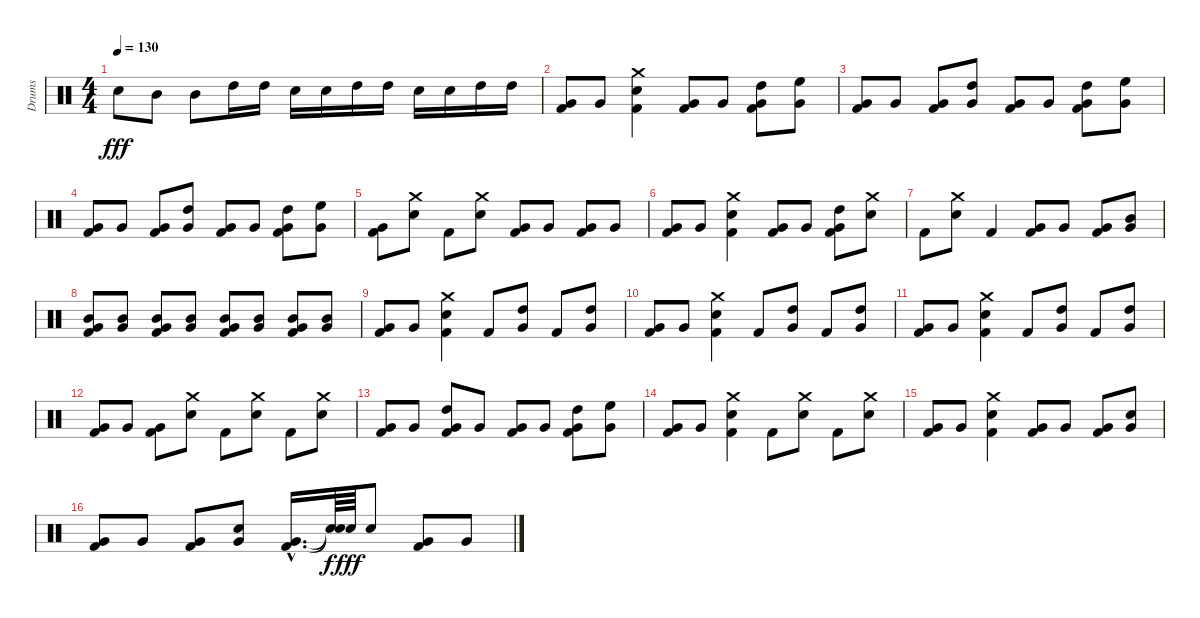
\track ("Drums" "Drums") {instrument percussion}
\staff {score}
\articulation defaults
\ts (4 4)
\tempo 130
\clef neutral
\ks c "Snare (hit) 2".8{dy fff} "Mid Tom (hit)".8 "Mid Tom (hit)".8 "High Tom (hit)".16 "High Tom (hit)".16 "Snare (hit) 2".16 "Snare (hit) 2".16 "High Tom (hit)".16 "High Tom (hit)".16 "Snare (hit) 2".16 "Snare (hit) 2".16 "High Tom (hit)".16 "High Tom (hit)".16
|
("Very Low Tom (hit)" "Kick (hit) 2").8 "Very Low Tom (hit)".8 ("Crash medium (hit)" "Snare (hit) 2" "Kick (hit) 2").4 ("Very Low Tom (hit)" "Kick (hit) 2").8 "Very Low Tom (hit)".8 ("High Tom (hit)" "Very Low Tom (hit)" "Kick (hit) 2").8 ("High Floor Tom (hit)" "Very Low Tom (hit)").8 |
("Very Low Tom (hit)" "Kick (hit) 2").8 "Very Low Tom (hit)".8 ("Very Low Tom (hit)" "Kick (hit) 2").8 ("High Tom (hit)" "Very Low Tom (hit)").8 ("Very Low Tom (hit)" "Kick (hit) 2").8 "Very Low Tom (hit)".8 ("High Tom (hit)" "Very Low Tom (hit)" "Kick (hit) 2").8 ("High Floor Tom (hit)" "Very Low Tom (hit)").8 |
("Very Low Tom (hit)" "Kick (hit) 2").8 "Very Low Tom (hit)".8 ("Very Low Tom (hit)" "Kick (hit) 2").8 ("High Tom (hit)" "Very Low Tom (hit)").8 ("Very Low Tom (hit)" "Kick (hit) 2").8 "Very Low Tom (hit)".8 ("High Tom (hit)" "Very Low Tom (hit)" "Kick (hit) 2").8 ("High Floor Tom (hit)" "Very Low Tom (hit)").8 |
("Very Low Tom (hit)" "Kick (hit) 2").8 ("Crash medium (hit)" "Snare (hit) 2").8 "Kick (hit) 2".8 ("Snare (hit) 2" "Crash medium (hit)").8 ("Very Low Tom (hit)" "Kick (hit) 2").8 "Very Low Tom (hit)".8 ("Very Low Tom (hit)" "Kick (hit) 2").8 "Very Low Tom (hit)".8 |
("Very Low Tom (hit)" "Kick (hit) 2").8 "Very Low Tom (hit)".8 ("Crash medium (hit)" "Snare (hit) 2" "Kick (hit) 2").4 ("Very Low Tom (hit)" "Kick (hit) 2").8 "Very Low Tom (hit)".8 ("High Tom (hit)" "Very Low Tom (hit)" "Kick (hit) 2").8 ("Crash medium (hit)" "Snare (hit) 2").8 |
"Kick (hit) 2".8 ("Snare (hit) 2" "Crash medium (hit)").8 "Kick (hit) 2".4 ("Very Low Tom (hit)" "Kick (hit) 2").8 "Very Low Tom (hit)".8 ("Very Low Tom (hit)" "Kick (hit) 2").8 ("Mid Tom (hit)" "Very Low Tom (hit)").8 |
("Mid Tom (hit)" "Very Low Tom (hit)" "Kick (hit) 2").8 ("Mid Tom (hit)" "Very Low Tom (hit)").8 ("Mid Tom (hit)" "Very Low Tom (hit)" "Kick (hit) 2").8 ("Mid Tom (hit)" "Very Low Tom (hit)").8 ("Mid Tom (hit)" "Very Low Tom (hit)" "Kick (hit) 2").8 ("Mid Tom (hit)" "Very Low Tom (hit)").8 ("Mid Tom (hit)" "Very Low Tom (hit)" "Kick (hit) 2").8 ("Mid Tom (hit)" "Very Low Tom (hit)").8 |
("Very Low Tom (hit)" "Kick (hit) 2").8 "Very Low Tom (hit)".8 ("Crash medium (hit)" "Snare (hit) 2" "Kick (hit) 2").4 "Kick (hit) 2".8 ("High Tom (hit)" "Very Low Tom (hit)").8 "Kick (hit) 2".8 ("High Tom (hit)" "Very Low Tom (hit)").8 |
("Very Low Tom (hit)" "Kick (hit) 2").8 "Very Low Tom (hit)".8 ("Crash medium (hit)" "Snare (hit) 2" "Kick (hit) 2").4 "Kick (hit) 2".8 ("High Tom (hit)" "Very Low Tom (hit)").8 "Kick (hit) 2".8 ("High Tom (hit)" "Very Low Tom (hit)").8 |
("Very Low Tom (hit)" "Kick (hit) 2").8 "Very Low Tom (hit)".8 ("Crash medium (hit)" "Snare (hit) 2" "Kick (hit) 2").4 "Kick (hit) 2".8 ("High Tom (hit)" "Very Low Tom (hit)").8 "Kick (hit) 2".8 ("High Tom (hit)" "Very Low Tom (hit)").8 |
("Very Low Tom (hit)" "Kick (hit) 2").8 "Very Low Tom (hit)".8 ("Very Low Tom (hit)" "Kick (hit) 2").8 ("Crash medium (hit)" "Snare (hit) 2").8 "Kick (hit) 2".8 ("Snare (hit) 2" "Crash medium (hit)").8 "Kick (hit) 2".8 ("Snare (hit) 2" "Crash medium (hit)").8 |
("Very Low Tom (hit)" "Kick (hit) 2").8 "Very Low Tom (hit)".8 ("High Tom (hit)" "Very Low Tom (hit)" "Kick (hit) 2").8 "Very Low Tom (hit)".8 ("Very Low Tom (hit)" "Kick (hit) 2").8 "Very Low Tom (hit)".8 ("High Tom (hit)" "Very Low Tom (hit)" "Kick (hit) 2").8 ("High Floor Tom (hit)" "Very Low Tom (hit)").8 |
("Very Low Tom (hit)" "Kick (hit) 2").8 "Very Low Tom (hit)".8 ("Snare (hit) 2" "Crash medium (hit)" "Kick (hit) 2").4 "Kick (hit) 2".8 ("Snare (hit) 2" "Crash medium (hit)").8 "Kick (hit) 2".8 ("Snare (hit) 2" "Crash medium (hit)").8 |
("Very Low Tom (hit)" "Kick (hit) 2").8 "Very Low Tom (hit)".8 ("Crash medium (hit)" "Snare (hit) 2" "Kick (hit) 2").4 ("Very Low Tom (hit)" "Kick (hit) 2").8 "Very Low Tom (hit)".8 ("Very Low Tom (hit)" "Kick (hit) 2").8 ("Snare (hit) 2" "Very Low Tom (hit)").8 |
("Very Low Tom (hit)" "Kick (hit) 2").8 "Very Low Tom (hit)".8 ("Very Low Tom (hit)" "Kick (hit) 2").8 ("Snare (hit) 2" "Very Low Tom (hit)").8 ("Very Low Tom (hit)"{hac} "Kick (hit) 2"{hac}).16{d} ("Snare (hit)"{t} "Snare (hit)"{t}).64{dy f} "Snare (hit) 2".64{dy fff} "Snare (hit) 2".8 ("Very Low Tom (hit)" "Kick (hit) 2").8 "Very Low Tom (hit)".8
